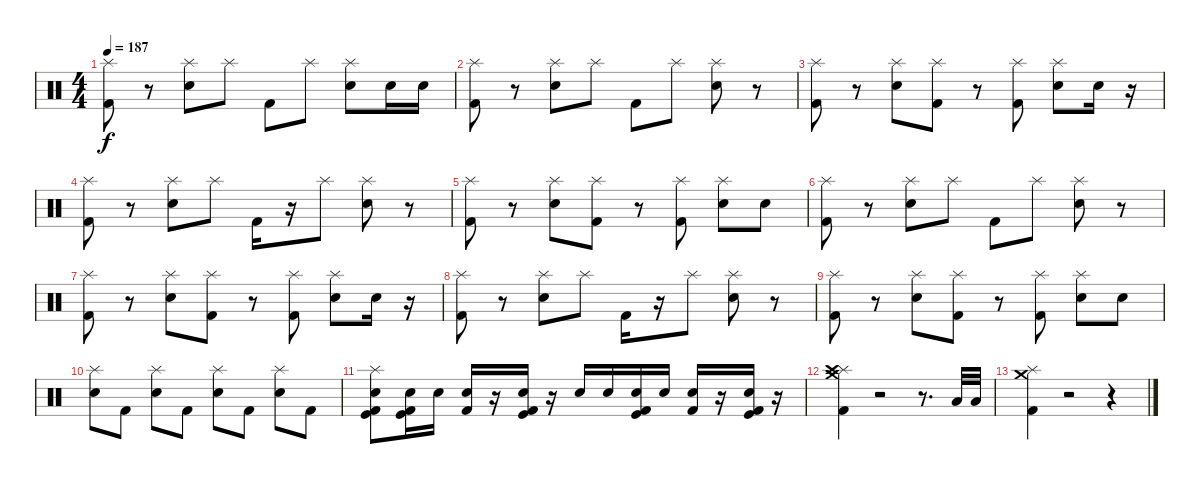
\track "" {instrument percussion}
\staff {score}
\articulation defaults
\ts (4 4)
\tempo 187
\clef neutral
\ks c
("Splash (hit)" "Kick (hit) 2").8{dy f} r.8 ("Splash (hit)" "Electric Snare (hit)").8 "Splash (hit)".8 "Kick (hit) 2".8 "Splash (hit)".8 ("Splash (hit)" "Electric Snare (hit)").8 "Electric Snare (hit)".16 "Electric Snare (hit)".16 |
("Splash (hit)" "Kick (hit) 2").8 r.8 ("Splash (hit)" "Electric Snare (hit)").8 "Splash (hit)".8 "Kick (hit) 2".8 "Splash (hit)".8 ("Splash (hit)" "Electric Snare (hit)").8 r.8 |
("Splash (hit)" "Kick (hit) 2").8 r.8 ("Splash (hit)" "Electric Snare (hit)").8 ("Splash (hit)" "Kick (hit) 2").8 r.8 ("Splash (hit)" "Kick (hit) 2").8 ("Splash (hit)" "Electric Snare (hit)").8 "Electric Snare (hit)".16 r.16 |
("Splash (hit)" "Kick (hit) 2").8 r.8 ("Splash (hit)" "Electric Snare (hit)").8 "Splash (hit)".8 "Kick (hit) 2".16 r.16 "Splash (hit)".8 ("Splash (hit)" "Electric Snare (hit)").8 r.8 |
("Splash (hit)" "Kick (hit) 2").8 r.8 ("Splash (hit)" "Electric Snare (hit)").8 ("Splash (hit)" "Kick (hit) 2").8 r.8 ("Splash (hit)" "Kick (hit) 2").8 ("Splash (hit)" "Electric Snare (hit)").8 "Electric Snare (hit)".8 |
("Splash (hit)" "Kick (hit) 2").8 r.8 ("Splash (hit)" "Electric Snare (hit)").8 "Splash (hit)".8 "Kick (hit) 2".8 "Splash (hit)".8 ("Splash (hit)" "Electric Snare (hit)").8 r.8 |
("Splash (hit)" "Kick (hit) 2").8 r.8 ("Splash (hit)" "Electric Snare (hit)").8 ("Splash (hit)" "Kick (hit) 2").8 r.8 ("Splash (hit)" "Kick (hit) 2").8 ("Splash (hit)" "Electric Snare (hit)").8 "Electric Snare (hit)".16 r.16 |
("Splash (hit)" "Kick (hit) 2").8 r.8 ("Splash (hit)" "Electric Snare (hit)").8 "Splash (hit)".8 "Kick (hit) 2".16 r.16 "Splash (hit)".8 ("Splash (hit)" "Electric Snare (hit)").8 r.8 |
("Splash (hit)" "Kick (hit) 2").8 r.8 ("Splash (hit)" "Electric Snare (hit)").8 ("Splash (hit)" "Kick (hit) 2").8 r.8 ("Splash (hit)" "Kick (hit) 2").8 ("Splash (hit)" "Electric Snare (hit)").8 "Electric Snare (hit)".8 |
("Splash (hit)" "Electric Snare (hit)").8 "Kick (hit) 2".8 ("Splash (hit)" "Electric Snare (hit)").8 "Kick (hit) 2".8 ("Splash (hit)" "Electric Snare (hit)").8 "Kick (hit) 2".8 ("Splash (hit)" "Electric Snare (hit)").8 "Kick (hit) 2".8 |
("Splash (hit)" "Electric Snare (hit)" "Kick (hit)" "Kick (hit) 2").8 ("Kick (hit) 2" "Kick (hit)" "Electric Snare (hit)").16 "Electric Snare (hit)".16 ("Kick (hit) 2" "Electric Snare (hit)").16 r.16 ("Kick (hit) 2" "Kick (hit)" "Electric Snare (hit)").16 r.16 "Electric Snare (hit)".16 "Electric Snare (hit)".16 ("Kick (hit) 2" "Kick (hit)" "Electric Snare (hit)").16 "Electric Snare (hit)".16 ("Kick (hit) 2" "Electric Snare (hit)").16 r.16 ("Kick (hit) 2" "Kick (hit)" "Electric Snare (hit)").16 r.16 |
("Kick (hit) 2" "Splash (hit)" "Crash medium (hit)" "Crash high (hit)").4 r.2 r.8{d} "Low Tom (hit)".32 "Low Tom (hit)".32 |
("Crash medium (hit)" "Splash (hit)" "Kick (hit) 2").4 r.2 r.4
